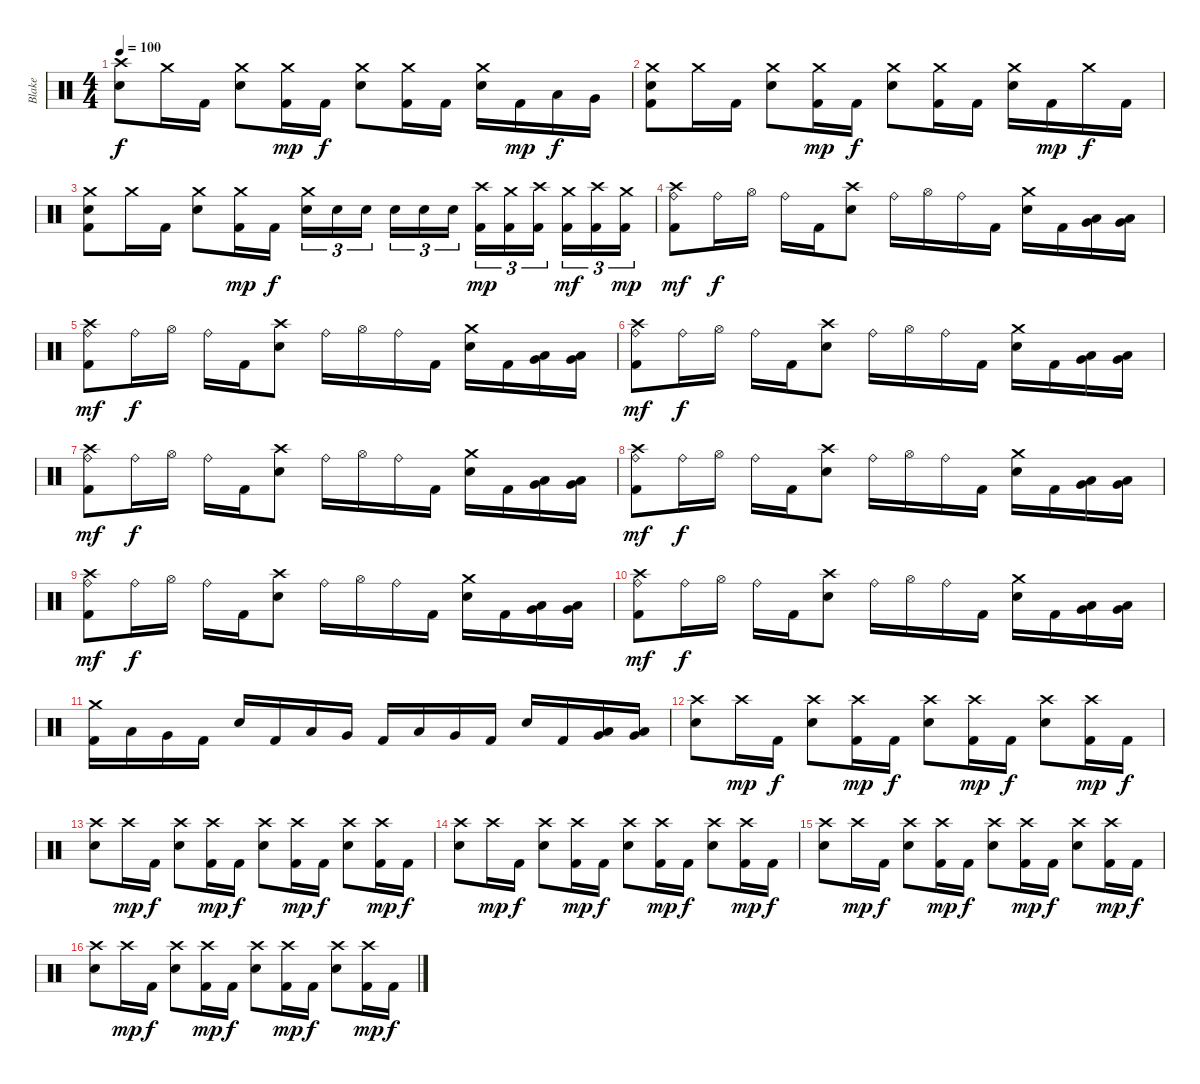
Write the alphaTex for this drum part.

\track ("Blake" "Blake") {instrument percussion}
\staff {score}
\articulation defaults
\ts (4 4)
\tempo 100
\clef neutral
\ks c
("Crash high (hit)" "Snare (hit) 2").8{dy f} "Crash medium (hit)".16 "Kick (hit) 2".16 ("Crash medium (hit)" "Snare (hit) 2").8 ("Crash medium (hit)" "Kick (hit) 2").16{dy mp} "Kick (hit) 2".16{dy f} ("Crash medium (hit)" "Snare (hit) 2").8 ("Crash medium (hit)" "Kick (hit) 2").16 "Kick (hit) 2".16 ("Crash medium (hit)" "Snare (hit) 2").16 "Kick (hit) 2".16{dy mp} "Low Tom (hit)".16{dy f} "Very Low Tom (hit)".16 |
("Crash medium (hit)" "Snare (hit) 2" "Kick (hit) 2").8 "Crash medium (hit)".16 "Kick (hit) 2".16 ("Crash medium (hit)" "Snare (hit) 2").8 ("Crash medium (hit)" "Kick (hit) 2").16{dy mp} "Kick (hit) 2".16{dy f} ("Crash medium (hit)" "Snare (hit) 2").8 ("Crash medium (hit)" "Kick (hit) 2").16 "Kick (hit) 2".16 ("Crash medium (hit)" "Snare (hit) 2").16 "Kick (hit) 2".16{dy mp} "Crash medium (hit)".16{dy f} "Kick (hit) 2".16 |
("Crash medium (hit)" "Snare (hit) 2" "Kick (hit) 2").8 "Crash medium (hit)".16 "Kick (hit) 2".16 ("Crash medium (hit)" "Snare (hit) 2").8 ("Crash medium (hit)" "Kick (hit) 2").16{dy mp} "Kick (hit) 2".16{dy f} ("Crash medium (hit)" "Snare (hit) 2").16{tu (3 2)} "Snare (hit) 2".16{tu (3 2)} "Snare (hit) 2".16{tu (3 2) beam splitsecondary} "Snare (hit) 2".16{tu (3 2)} "Snare (hit) 2".16{tu (3 2)} "Snare (hit) 2".16{tu (3 2)} ("Crash high (hit)" "Kick (hit) 2").16{tu (3 2) dy mp} ("Crash medium (hit)" "Kick (hit) 2").16{tu (3 2)} ("Crash high (hit)" "Kick (hit) 2").16{tu (3 2) beam splitsecondary} ("Crash medium (hit)" "Kick (hit) 2").16{tu (3 2) dy mf} ("Crash high (hit)" "Kick (hit) 2").16{tu (3 2)} ("Crash medium (hit)" "Kick (hit) 2").16{tu (3 2) dy mp} |
("Crash high (hit)" "Ride (bell)" "Kick (hit) 2").8{dy mf} "Ride (bell)".16{dy f} "Hi-Hat (open)".16 "Ride (bell)".16 "Kick (hit) 2".16 ("Crash high (hit)" "Snare (hit) 2").8 "Ride (bell)".16 "Hi-Hat (open)".16 "Ride (bell)".16 "Kick (hit) 2".16 ("Crash medium (hit)" "Snare (hit) 2").16 "Kick (hit) 2".16 ("Very Low Tom (hit)" "Low Tom (hit)").16 ("Very Low Tom (hit)" "Low Tom (hit)").16 |
("Crash high (hit)" "Ride (bell)" "Kick (hit) 2").8{dy mf} "Ride (bell)".16{dy f} "Hi-Hat (open)".16 "Ride (bell)".16 "Kick (hit) 2".16 ("Crash high (hit)" "Snare (hit) 2").8 "Ride (bell)".16 "Hi-Hat (open)".16 "Ride (bell)".16 "Kick (hit) 2".16 ("Crash medium (hit)" "Snare (hit) 2").16 "Kick (hit) 2".16 ("Very Low Tom (hit)" "Low Tom (hit)").16 ("Very Low Tom (hit)" "Low Tom (hit)").16 |
("Crash high (hit)" "Ride (bell)" "Kick (hit) 2").8{dy mf} "Ride (bell)".16{dy f} "Hi-Hat (open)".16 "Ride (bell)".16 "Kick (hit) 2".16 ("Crash high (hit)" "Snare (hit) 2").8 "Ride (bell)".16 "Hi-Hat (open)".16 "Ride (bell)".16 "Kick (hit) 2".16 ("Crash medium (hit)" "Snare (hit) 2").16 "Kick (hit) 2".16 ("Very Low Tom (hit)" "Low Tom (hit)").16 ("Very Low Tom (hit)" "Low Tom (hit)").16 |
("Crash high (hit)" "Ride (bell)" "Kick (hit) 2").8{dy mf} "Ride (bell)".16{dy f} "Hi-Hat (open)".16 "Ride (bell)".16 "Kick (hit) 2".16 ("Crash high (hit)" "Snare (hit) 2").8 "Ride (bell)".16 "Hi-Hat (open)".16 "Ride (bell)".16 "Kick (hit) 2".16 ("Crash medium (hit)" "Snare (hit) 2").16 "Kick (hit) 2".16 ("Very Low Tom (hit)" "Low Tom (hit)").16 ("Very Low Tom (hit)" "Low Tom (hit)").16 |
("Crash high (hit)" "Ride (bell)" "Kick (hit) 2").8{dy mf} "Ride (bell)".16{dy f} "Hi-Hat (open)".16 "Ride (bell)".16 "Kick (hit) 2".16 ("Crash high (hit)" "Snare (hit) 2").8 "Ride (bell)".16 "Hi-Hat (open)".16 "Ride (bell)".16 "Kick (hit) 2".16 ("Crash medium (hit)" "Snare (hit) 2").16 "Kick (hit) 2".16 ("Very Low Tom (hit)" "Low Tom (hit)").16 ("Very Low Tom (hit)" "Low Tom (hit)").16 |
("Crash high (hit)" "Ride (bell)" "Kick (hit) 2").8{dy mf} "Ride (bell)".16{dy f} "Hi-Hat (open)".16 "Ride (bell)".16 "Kick (hit) 2".16 ("Crash high (hit)" "Snare (hit) 2").8 "Ride (bell)".16 "Hi-Hat (open)".16 "Ride (bell)".16 "Kick (hit) 2".16 ("Crash medium (hit)" "Snare (hit) 2").16 "Kick (hit) 2".16 ("Very Low Tom (hit)" "Low Tom (hit)").16 ("Very Low Tom (hit)" "Low Tom (hit)").16 |
("Crash high (hit)" "Ride (bell)" "Kick (hit) 2").8{dy mf} "Ride (bell)".16{dy f} "Hi-Hat (open)".16 "Ride (bell)".16 "Kick (hit) 2".16 ("Crash high (hit)" "Snare (hit) 2").8 "Ride (bell)".16 "Hi-Hat (open)".16 "Ride (bell)".16 "Kick (hit) 2".16 ("Crash medium (hit)" "Snare (hit) 2").16 "Kick (hit) 2".16 ("Very Low Tom (hit)" "Low Tom (hit)").16 ("Very Low Tom (hit)" "Low Tom (hit)").16 |
("Crash medium (hit)" "Kick (hit) 2").16 "Low Tom (hit)".16 "Very Low Tom (hit)".16 "Kick (hit) 2".16 "Snare (hit) 2".16 "Kick (hit) 2".16 "Low Tom (hit)".16 "Very Low Tom (hit)".16 "Kick (hit) 2".16 "Low Tom (hit)".16 "Very Low Tom (hit)".16 "Kick (hit) 2".16 "Snare (hit) 2".16 "Kick (hit) 2".16 ("Low Floor Tom (hit)" "Very Low Tom (hit)").16 ("Low Floor Tom (hit)" "Very Low Tom (hit)").16 |
("Crash high (hit)" "Snare (hit) 2").8 "Crash high (hit)".16{dy mp} "Kick (hit) 2".16{dy f} ("Crash high (hit)" "Snare (hit) 2").8 ("Crash high (hit)" "Kick (hit) 2").16{dy mp} "Kick (hit) 2".16{dy f} ("Crash high (hit)" "Snare (hit) 2").8 ("Crash high (hit)" "Kick (hit) 2").16{dy mp} "Kick (hit) 2".16{dy f} ("Crash high (hit)" "Snare (hit) 2").8 ("Crash high (hit)" "Kick (hit) 2").16{dy mp} "Kick (hit) 2".16{dy f} |
("Crash high (hit)" "Snare (hit) 2").8 "Crash high (hit)".16{dy mp} "Kick (hit) 2".16{dy f} ("Crash high (hit)" "Snare (hit) 2").8 ("Crash high (hit)" "Kick (hit) 2").16{dy mp} "Kick (hit) 2".16{dy f} ("Crash high (hit)" "Snare (hit) 2").8 ("Crash high (hit)" "Kick (hit) 2").16{dy mp} "Kick (hit) 2".16{dy f} ("Crash high (hit)" "Snare (hit) 2").8 ("Crash high (hit)" "Kick (hit) 2").16{dy mp} "Kick (hit) 2".16{dy f} |
("Crash high (hit)" "Snare (hit) 2").8 "Crash high (hit)".16{dy mp} "Kick (hit) 2".16{dy f} ("Crash high (hit)" "Snare (hit) 2").8 ("Crash high (hit)" "Kick (hit) 2").16{dy mp} "Kick (hit) 2".16{dy f} ("Crash high (hit)" "Snare (hit) 2").8 ("Crash high (hit)" "Kick (hit) 2").16{dy mp} "Kick (hit) 2".16{dy f} ("Crash high (hit)" "Snare (hit) 2").8 ("Crash high (hit)" "Kick (hit) 2").16{dy mp} "Kick (hit) 2".16{dy f} |
("Crash high (hit)" "Snare (hit) 2").8 "Crash high (hit)".16{dy mp} "Kick (hit) 2".16{dy f} ("Crash high (hit)" "Snare (hit) 2").8 ("Crash high (hit)" "Kick (hit) 2").16{dy mp} "Kick (hit) 2".16{dy f} ("Crash high (hit)" "Snare (hit) 2").8 ("Crash high (hit)" "Kick (hit) 2").16{dy mp} "Kick (hit) 2".16{dy f} ("Crash high (hit)" "Snare (hit) 2").8 ("Crash high (hit)" "Kick (hit) 2").16{dy mp} "Kick (hit) 2".16{dy f} |
("Crash high (hit)" "Snare (hit) 2").8 "Crash high (hit)".16{dy mp} "Kick (hit) 2".16{dy f} ("Crash high (hit)" "Snare (hit) 2").8 ("Crash high (hit)" "Kick (hit) 2").16{dy mp} "Kick (hit) 2".16{dy f} ("Crash high (hit)" "Snare (hit) 2").8 ("Crash high (hit)" "Kick (hit) 2").16{dy mp} "Kick (hit) 2".16{dy f} ("Crash high (hit)" "Snare (hit) 2").8 ("Crash high (hit)" "Kick (hit) 2").16{dy mp} "Kick (hit) 2".16{dy f}
